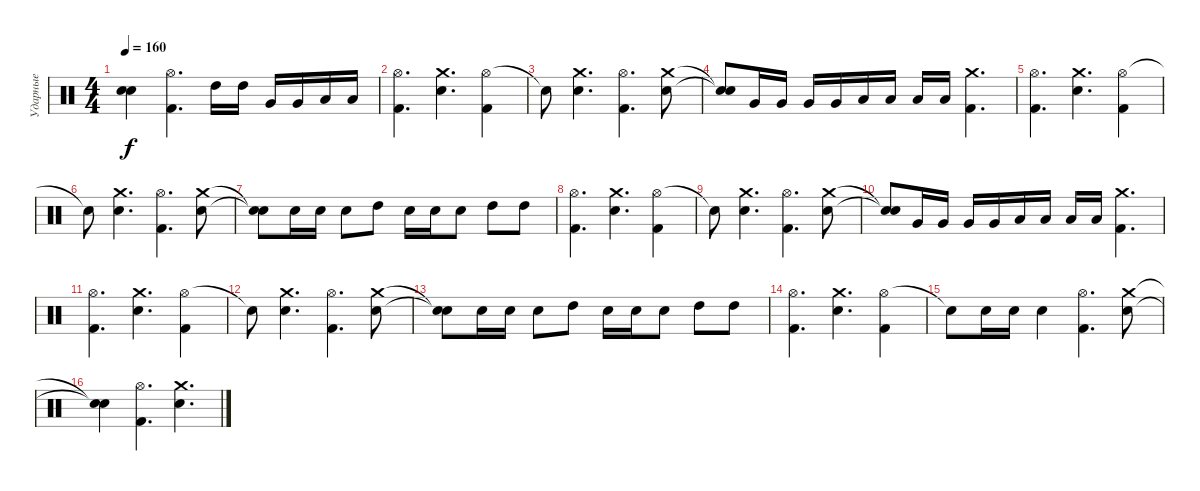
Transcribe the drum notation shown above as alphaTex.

\track ("Ударные" "Ударные") {instrument percussion}
\staff {score}
\articulation defaults
\ts (4 4)
\tempo 160
\clef neutral
\ks c
("Snare (hit)"{t} "Snare (hit)"{t}).4{dy f} ("Hi-Hat (open)" "Kick (hit) 2").4{d} "High Tom (hit)".16 "High Tom (hit)".16 "Very Low Tom (hit)".16 "Very Low Tom (hit)".16 "Low Tom (hit)".16 "Low Tom (hit)".16 |
("Hi-Hat (open)" "Kick (hit) 2").4{d} ("Crash medium (hit)" "Electric Snare (hit)").4{d} ("Hi-Hat (open)" "Kick (hit) 2").4 |
"Snare (hit)"{t}.8 ("Crash medium (hit)" "Electric Snare (hit)").4{d} ("Hi-Hat (open)" "Kick (hit) 2").4{d} ("Crash medium (hit)" "Electric Snare (hit)").8 |
("Snare (hit)"{t} "Snare (hit)"{t}).8 "Very Low Tom (hit)".16 "Very Low Tom (hit)".16 "Very Low Tom (hit)".16 "Very Low Tom (hit)".16 "Low Floor Tom (hit)".16 "Low Floor Tom (hit)".16 "Low Floor Tom (hit)".16 "Low Floor Tom (hit)".16 ("Crash medium (hit)" "Kick (hit) 2").4{d} |
("Hi-Hat (open)" "Kick (hit) 2").4{d} ("Crash medium (hit)" "Electric Snare (hit)").4{d} ("Hi-Hat (open)" "Kick (hit) 2").4 |
"Snare (hit)"{t}.8 ("Crash medium (hit)" "Electric Snare (hit)").4{d} ("Hi-Hat (open)" "Kick (hit) 2").4{d} ("Crash medium (hit)" "Electric Snare (hit)").8 |
("Snare (hit)"{t} "Snare (hit)"{t}).8 "Electric Snare (hit)".16 "Electric Snare (hit)".16 "Electric Snare (hit)".8 "High Tom (hit)".8 "Electric Snare (hit)".16 "Electric Snare (hit)".16 "Electric Snare (hit)".8 "High Tom (hit)".8 "High Tom (hit)".8 |
("Hi-Hat (open)" "Kick (hit) 2").4{d} ("Crash medium (hit)" "Electric Snare (hit)").4{d} ("Hi-Hat (open)" "Kick (hit) 2").4 |
"Snare (hit)"{t}.8 ("Crash medium (hit)" "Electric Snare (hit)").4{d} ("Hi-Hat (open)" "Kick (hit) 2").4{d} ("Crash medium (hit)" "Electric Snare (hit)").8 |
("Snare (hit)"{t} "Snare (hit)"{t}).8 "Very Low Tom (hit)".16 "Very Low Tom (hit)".16 "Very Low Tom (hit)".16 "Very Low Tom (hit)".16 "Low Floor Tom (hit)".16 "Low Floor Tom (hit)".16 "Low Floor Tom (hit)".16 "Low Floor Tom (hit)".16 ("Crash medium (hit)" "Kick (hit) 2").4{d} |
("Hi-Hat (open)" "Kick (hit) 2").4{d} ("Crash medium (hit)" "Electric Snare (hit)").4{d} ("Hi-Hat (open)" "Kick (hit) 2").4 |
"Snare (hit)"{t}.8 ("Crash medium (hit)" "Electric Snare (hit)").4{d} ("Hi-Hat (open)" "Kick (hit) 2").4{d} ("Crash medium (hit)" "Electric Snare (hit)").8 |
("Snare (hit)"{t} "Snare (hit)"{t}).8 "Electric Snare (hit)".16 "Electric Snare (hit)".16 "Electric Snare (hit)".8 "High Tom (hit)".8 "Electric Snare (hit)".16 "Electric Snare (hit)".16 "Electric Snare (hit)".8 "High Tom (hit)".8 "High Tom (hit)".8 |
("Hi-Hat (open)" "Kick (hit) 2").4{d} ("Crash medium (hit)" "Electric Snare (hit)").4{d} ("Hi-Hat (open)" "Kick (hit) 2").4 |
"Snare (hit)"{t}.8 "Electric Snare (hit)".16 "Electric Snare (hit)".16 "Electric Snare (hit)".4 ("Hi-Hat (open)" "Kick (hit) 2").4{d} ("Crash medium (hit)" "Electric Snare (hit)").8 |
("Snare (hit)"{t} "Snare (hit)"{t}).4 ("Hi-Hat (open)" "Kick (hit) 2").4{d} ("Crash medium (hit)" "Electric Snare (hit)").4{d}
